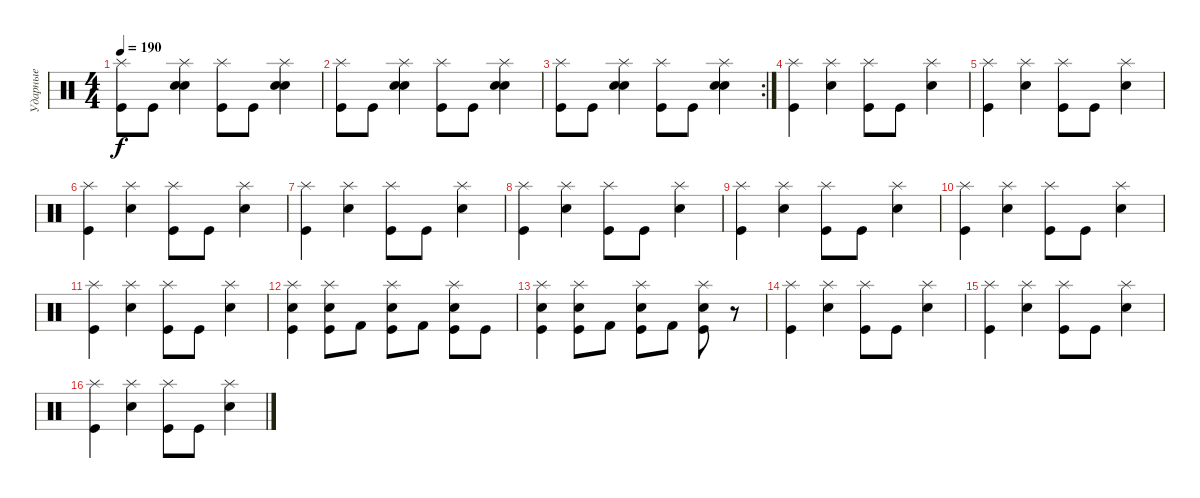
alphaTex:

\track ("Ударные" "Ударные") {instrument percussion}
\staff {score}
\articulation defaults
\ts (4 4)
\tempo 190
\clef neutral
\ks c
("Splash (hit)" "Kick (hit)").8{dy f} "Kick (hit)".8 ("Splash (hit)" "Snare (hit) 2" "Electric Snare (hit)").4 ("Splash (hit)" "Kick (hit)").8 "Kick (hit)".8 ("Splash (hit)" "Snare (hit) 2" "Electric Snare (hit)").4 |
("Splash (hit)" "Kick (hit)").8 "Kick (hit)".8 ("Splash (hit)" "Snare (hit) 2" "Electric Snare (hit)").4 ("Splash (hit)" "Kick (hit)").8 "Kick (hit)".8 ("Splash (hit)" "Snare (hit) 2" "Electric Snare (hit)").4 |
\rc 2
("Splash (hit)" "Kick (hit)").8 "Kick (hit)".8 ("Splash (hit)" "Snare (hit) 2" "Electric Snare (hit)").4 ("Splash (hit)" "Kick (hit)").8 "Kick (hit)".8 ("Splash (hit)" "Snare (hit) 2" "Electric Snare (hit)").4 |
("Splash (hit)" "Kick (hit)").4 ("Splash (hit)" "Electric Snare (hit)").4 ("Splash (hit)" "Kick (hit)").8 "Kick (hit)".8 ("Splash (hit)" "Electric Snare (hit)").4 |
("Splash (hit)" "Kick (hit)").4 ("Splash (hit)" "Electric Snare (hit)").4 ("Splash (hit)" "Kick (hit)").8 "Kick (hit)".8 ("Splash (hit)" "Electric Snare (hit)").4 |
("Splash (hit)" "Kick (hit)").4 ("Splash (hit)" "Electric Snare (hit)").4 ("Splash (hit)" "Kick (hit)").8 "Kick (hit)".8 ("Splash (hit)" "Electric Snare (hit)").4 |
("Splash (hit)" "Kick (hit)").4 ("Splash (hit)" "Electric Snare (hit)").4 ("Splash (hit)" "Kick (hit)").8 "Kick (hit)".8 ("Splash (hit)" "Electric Snare (hit)").4 |
("Splash (hit)" "Kick (hit)").4 ("Splash (hit)" "Electric Snare (hit)").4 ("Splash (hit)" "Kick (hit)").8 "Kick (hit)".8 ("Splash (hit)" "Electric Snare (hit)").4 |
("Splash (hit)" "Kick (hit)").4 ("Splash (hit)" "Electric Snare (hit)").4 ("Splash (hit)" "Kick (hit)").8 "Kick (hit)".8 ("Splash (hit)" "Electric Snare (hit)").4 |
("Splash (hit)" "Kick (hit)").4 ("Splash (hit)" "Electric Snare (hit)").4 ("Splash (hit)" "Kick (hit)").8 "Kick (hit)".8 ("Splash (hit)" "Electric Snare (hit)").4 |
("Splash (hit)" "Kick (hit)").4 ("Splash (hit)" "Electric Snare (hit)").4 ("Splash (hit)" "Kick (hit)").8 "Kick (hit)".8 ("Splash (hit)" "Electric Snare (hit)").4 |
("Splash (hit)" "Electric Snare (hit)" "Kick (hit)").4 ("Splash (hit)" "Electric Snare (hit)" "Kick (hit)").8 "Kick (hit) 2".8 ("Splash (hit)" "Electric Snare (hit)" "Kick (hit)").8 "Kick (hit) 2".8 ("Splash (hit)" "Electric Snare (hit)" "Kick (hit)").8 "Kick (hit)".8 |
("Splash (hit)" "Electric Snare (hit)" "Kick (hit)").4 ("Splash (hit)" "Electric Snare (hit)" "Kick (hit)").8 "Kick (hit) 2".8 ("Splash (hit)" "Electric Snare (hit)" "Kick (hit)").8 "Kick (hit) 2".8 ("Splash (hit)" "Electric Snare (hit)" "Kick (hit)").8 r.8 |
("Splash (hit)" "Kick (hit)").4 ("Splash (hit)" "Electric Snare (hit)").4 ("Splash (hit)" "Kick (hit)").8 "Kick (hit)".8 ("Splash (hit)" "Electric Snare (hit)").4 |
("Splash (hit)" "Kick (hit)").4 ("Splash (hit)" "Electric Snare (hit)").4 ("Splash (hit)" "Kick (hit)").8 "Kick (hit)".8 ("Splash (hit)" "Electric Snare (hit)").4 |
("Splash (hit)" "Kick (hit)").4 ("Splash (hit)" "Electric Snare (hit)").4 ("Splash (hit)" "Kick (hit)").8 "Kick (hit)".8 ("Splash (hit)" "Electric Snare (hit)").4
